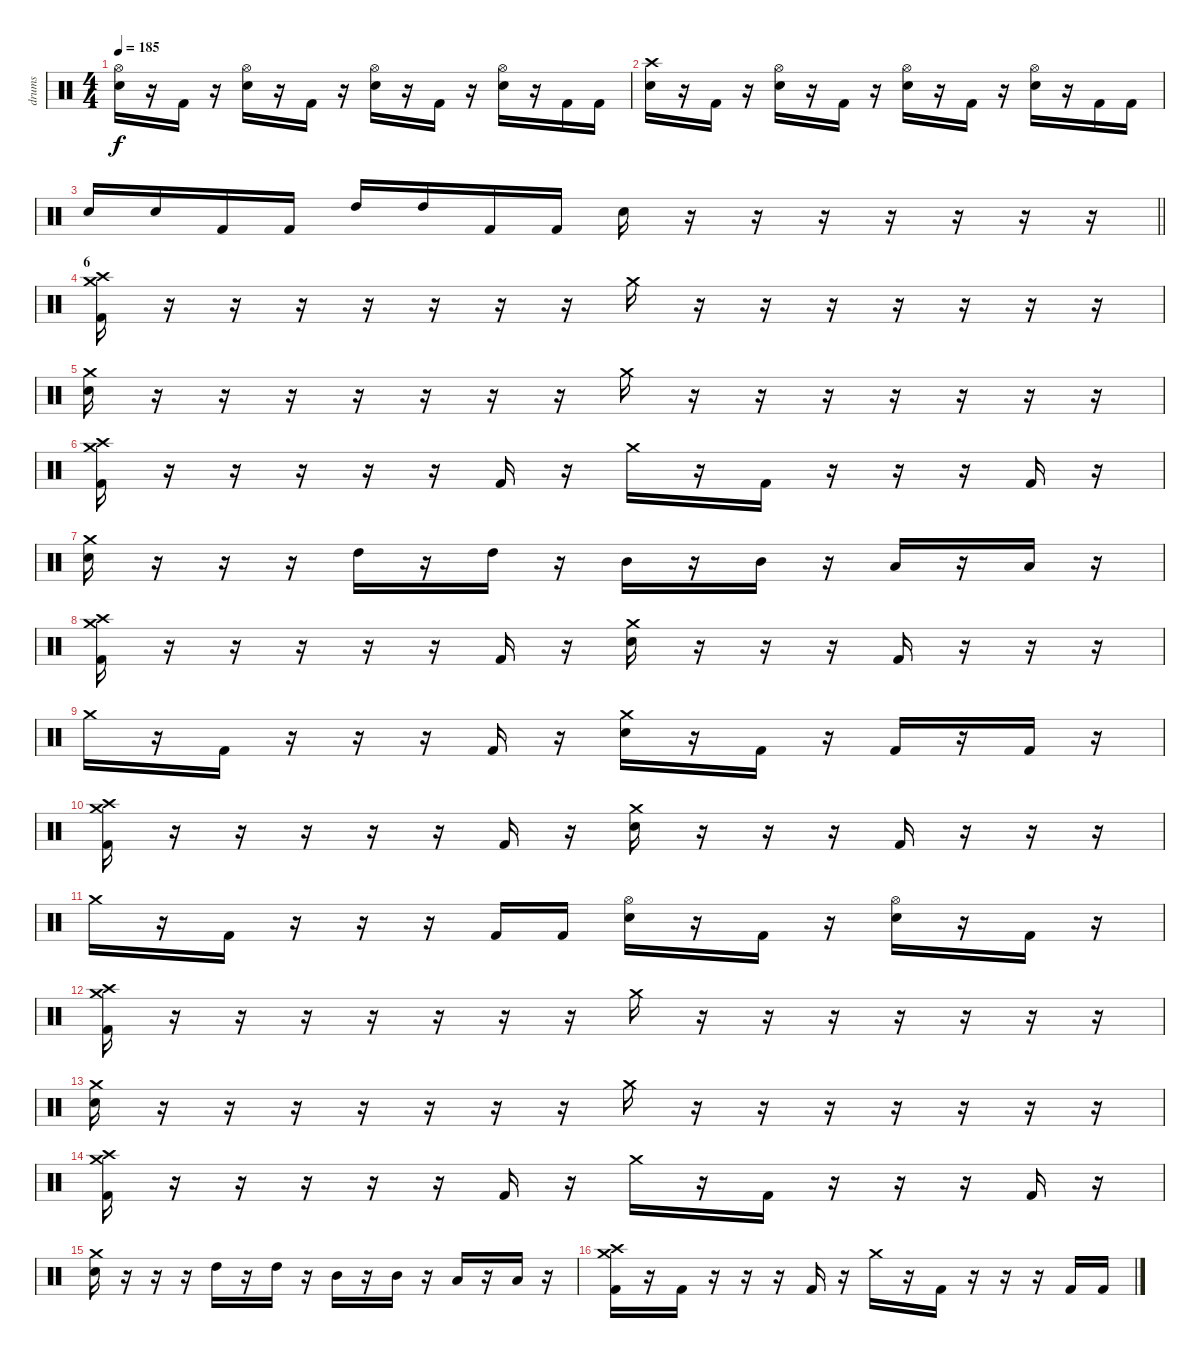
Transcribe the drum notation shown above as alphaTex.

\track ("drums" "drums") {instrument percussion}
\staff {score}
\articulation defaults
\ts (4 4)
\tempo 185
\clef neutral
\ks c
("Hi-Hat (open)" "Electric Snare (hit)").16{dy f} r.16 "Kick (hit) 2".16 r.16 ("Hi-Hat (open)" "Electric Snare (hit)").16 r.16 "Kick (hit) 2".16 r.16 ("Hi-Hat (open)" "Electric Snare (hit)").16 r.16 "Kick (hit) 2".16 r.16 ("Hi-Hat (open)" "Electric Snare (hit)").16 r.16 "Kick (hit) 2".16 "Kick (hit) 2".16 |
("Crash high (hit)" "Electric Snare (hit)").16 r.16 "Kick (hit) 2".16 r.16 ("Hi-Hat (open)" "Electric Snare (hit)").16 r.16 "Kick (hit) 2".16 r.16 ("Hi-Hat (open)" "Electric Snare (hit)").16 r.16 "Kick (hit) 2".16 r.16 ("Hi-Hat (open)" "Electric Snare (hit)").16 r.16 "Kick (hit) 2".16 "Kick (hit) 2".16 |
\barLineRight lightlight "Electric Snare (hit)".16 "Electric Snare (hit)".16 "Kick (hit) 2".16 "Kick (hit) 2".16 "High Tom (hit)".16 "High Tom (hit)".16 "Kick (hit) 2".16 "Kick (hit) 2".16 "Electric Snare (hit)".16
r.16 r.16 r.16 r.16 r.16 r.16 r.16 |
\section ("" "6")
("Crash medium (hit)" "Crash high (hit)" "Kick (hit) 2").16 r.16 r.16 r.16 r.16 r.16 r.16 r.16 "Crash medium (hit)".16 r.16 r.16 r.16 r.16 r.16 r.16 r.16 |
("Crash medium (hit)" "Electric Snare (hit)").16 r.16 r.16 r.16 r.16 r.16 r.16 r.16 "Crash medium (hit)".16 r.16 r.16 r.16 r.16 r.16 r.16 r.16 |
("Crash medium (hit)" "Crash high (hit)" "Kick (hit) 2").16 r.16 r.16 r.16 r.16 r.16 "Kick (hit) 2".16 r.16 "Crash medium (hit)".16 r.16 "Kick (hit) 2".16 r.16 r.16 r.16 "Kick (hit) 2".16 r.16 |
("Crash medium (hit)" "Electric Snare (hit)").16 r.16 r.16 r.16 "High Tom (hit)".16 r.16 "High Tom (hit)".16 r.16 "Mid Tom (hit)".16 r.16 "Mid Tom (hit)".16 r.16 "Low Floor Tom (hit)".16 r.16 "Low Floor Tom (hit)".16 r.16 |
("Crash high (hit)" "Crash medium (hit)" "Kick (hit) 2").16 r.16 r.16 r.16 r.16 r.16 "Kick (hit) 2".16 r.16 ("Crash medium (hit)" "Electric Snare (hit)").16 r.16 r.16 r.16 "Kick (hit) 2".16 r.16 r.16 r.16 |
"Crash medium (hit)".16 r.16 "Kick (hit) 2".16 r.16 r.16 r.16 "Kick (hit) 2".16 r.16 ("Crash medium (hit)" "Electric Snare (hit)").16 r.16 "Kick (hit) 2".16 r.16 "Kick (hit) 2".16 r.16 "Kick (hit) 2".16 r.16 |
("Crash high (hit)" "Crash medium (hit)" "Kick (hit) 2").16 r.16 r.16 r.16 r.16 r.16 "Kick (hit) 2".16 r.16 ("Crash medium (hit)" "Electric Snare (hit)").16 r.16 r.16 r.16 "Kick (hit) 2".16 r.16 r.16 r.16 |
"Crash medium (hit)".16 r.16 "Kick (hit) 2".16 r.16 r.16 r.16 "Kick (hit) 2".16 "Kick (hit) 2".16 ("Hi-Hat (open)" "Electric Snare (hit)").16 r.16 "Kick (hit) 2".16 r.16 ("Hi-Hat (open)" "Electric Snare (hit)").16 r.16 "Kick (hit) 2".16 r.16 |
("Crash medium (hit)" "Crash high (hit)" "Kick (hit) 2").16 r.16 r.16 r.16 r.16 r.16 r.16 r.16 "Crash medium (hit)".16 r.16 r.16 r.16 r.16 r.16 r.16 r.16 |
("Crash medium (hit)" "Electric Snare (hit)").16 r.16 r.16 r.16 r.16 r.16 r.16 r.16 "Crash medium (hit)".16 r.16 r.16 r.16 r.16 r.16 r.16 r.16 |
("Crash medium (hit)" "Crash high (hit)" "Kick (hit) 2").16 r.16 r.16 r.16 r.16 r.16 "Kick (hit) 2".16 r.16 "Crash medium (hit)".16 r.16 "Kick (hit) 2".16 r.16 r.16 r.16 "Kick (hit) 2".16 r.16 |
("Crash medium (hit)" "Electric Snare (hit)").16 r.16 r.16 r.16 "High Tom (hit)".16 r.16 "High Tom (hit)".16 r.16 "Mid Tom (hit)".16 r.16 "Mid Tom (hit)".16 r.16 "Low Floor Tom (hit)".16 r.16 "Low Floor Tom (hit)".16 r.16 |
("Crash high (hit)" "Crash medium (hit)" "Kick (hit) 2").16 r.16 "Kick (hit) 2".16 r.16 r.16 r.16 "Kick (hit) 2".16 r.16 "Crash medium (hit)".16 r.16 "Kick (hit) 2".16 r.16 r.16 r.16 "Kick (hit) 2".16 "Kick (hit) 2".16
